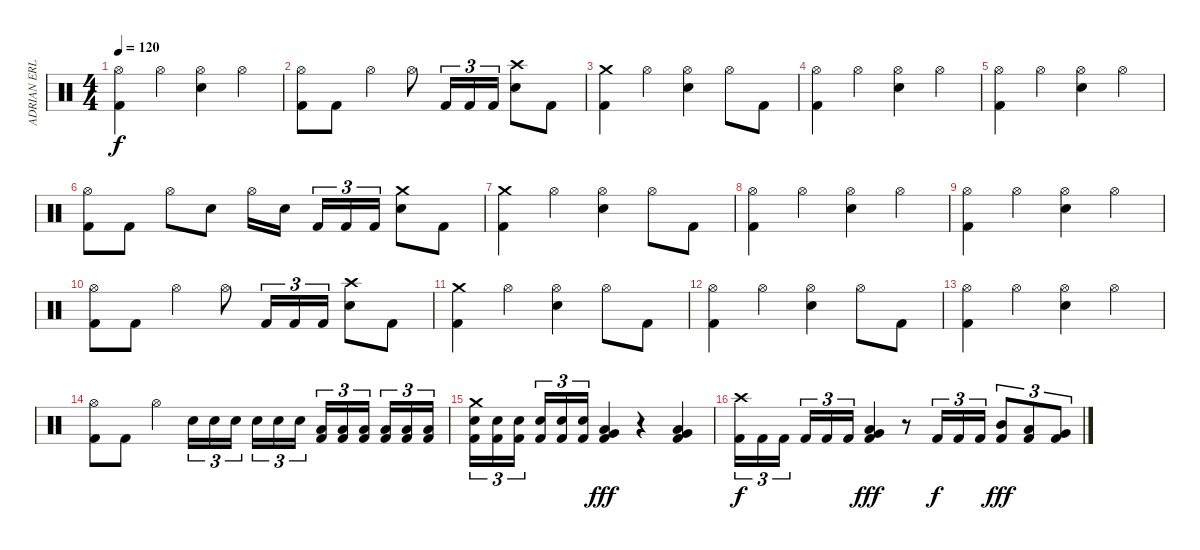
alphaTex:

\track ("ADRIAN ERLANDSSON" "ADRIAN ERL") {instrument percussion}
\staff {score}
\articulation defaults
\ts (4 4)
\tempo 120
\clef neutral
\ks c
("Kick (hit) 2" "Hi-Hat (open)").4{dy f} "Hi-Hat (open)".4 ("Snare (hit) 2" "Hi-Hat (open)").4 "Hi-Hat (open)".4 |
("Kick (hit) 2" "Hi-Hat (open)").8 "Kick (hit) 2".8 "Hi-Hat (open)".4 "Hi-Hat (open)".8 "Kick (hit) 2".16{tu (3 2)} "Kick (hit) 2".16{tu (3 2)} "Kick (hit) 2".16{tu (3 2)} ("Snare (hit) 2" "Crash high (hit)").8 "Kick (hit) 2".8 |
("Kick (hit) 2" "Crash medium (hit)").4 "Hi-Hat (open)".4 ("Snare (hit) 2" "Hi-Hat (open)").4 "Hi-Hat (open)".8 "Kick (hit) 2".8 |
("Kick (hit) 2" "Hi-Hat (open)").4 "Hi-Hat (open)".4 ("Snare (hit) 2" "Hi-Hat (open)").4 "Hi-Hat (open)".4 |
("Kick (hit) 2" "Hi-Hat (open)").4 "Hi-Hat (open)".4 ("Snare (hit) 2" "Hi-Hat (open)").4 "Hi-Hat (open)".4 |
("Kick (hit) 2" "Hi-Hat (open)").8 "Kick (hit) 2".8 "Hi-Hat (open)".8 "Snare (hit) 2".8 "Hi-Hat (open)".16 "Snare (hit) 2".16{beam splitsecondary} "Kick (hit) 2".16{tu (3 2)} "Kick (hit) 2".16{tu (3 2)} "Kick (hit) 2".16{tu (3 2)} ("Snare (hit) 2" "Crash medium (hit)").8 "Kick (hit) 2".8 |
("Kick (hit) 2" "Crash medium (hit)").4 "Hi-Hat (open)".4 ("Snare (hit) 2" "Hi-Hat (open)").4 "Hi-Hat (open)".8 "Kick (hit) 2".8 |
("Kick (hit) 2" "Hi-Hat (open)").4 "Hi-Hat (open)".4 ("Snare (hit) 2" "Hi-Hat (open)").4 "Hi-Hat (open)".4 |
("Kick (hit) 2" "Hi-Hat (open)").4 "Hi-Hat (open)".4 ("Snare (hit) 2" "Hi-Hat (open)").4 "Hi-Hat (open)".4 |
("Kick (hit) 2" "Hi-Hat (open)").8 "Kick (hit) 2".8 "Hi-Hat (open)".4 "Hi-Hat (open)".8 "Kick (hit) 2".16{tu (3 2)} "Kick (hit) 2".16{tu (3 2)} "Kick (hit) 2".16{tu (3 2)} ("Snare (hit) 2" "Crash high (hit)").8 "Kick (hit) 2".8 |
("Kick (hit) 2" "Crash medium (hit)").4 "Hi-Hat (open)".4 ("Snare (hit) 2" "Hi-Hat (open)").4 "Hi-Hat (open)".8 "Kick (hit) 2".8 |
("Kick (hit) 2" "Hi-Hat (open)").4 "Hi-Hat (open)".4 ("Snare (hit) 2" "Hi-Hat (open)").4 "Hi-Hat (open)".8 "Kick (hit) 2".8 |
("Kick (hit) 2" "Hi-Hat (open)").4 "Hi-Hat (open)".4 ("Snare (hit) 2" "Hi-Hat (open)").4 "Hi-Hat (open)".4 |
("Kick (hit) 2" "Hi-Hat (open)").8 "Kick (hit) 2".8 "Hi-Hat (open)".4 "Snare (hit) 2".16{tu (3 2)} "Snare (hit) 2".16{tu (3 2)} "Snare (hit) 2".16{tu (3 2) beam splitsecondary} "Snare (hit) 2".16{tu (3 2)} "Snare (hit) 2".16{tu (3 2)} "Snare (hit) 2".16{tu (3 2)} ("Kick (hit) 2" "Low Tom (hit)").16{tu (3 2)} ("Kick (hit) 2" "Low Tom (hit)").16{tu (3 2)} ("Kick (hit) 2" "Low Tom (hit)").16{tu (3 2) beam splitsecondary} ("Kick (hit) 2" "Low Tom (hit)").16{tu (3 2)} ("Kick (hit) 2" "Low Tom (hit)").16{tu (3 2)} ("Kick (hit) 2" "Low Tom (hit)").16{tu (3 2)} |
("Kick (hit) 2" "Snare (hit) 2" "Crash medium (hit)").16{tu (3 2)} ("Kick (hit) 2" "Snare (hit) 2").16{tu (3 2)} ("Kick (hit) 2" "Snare (hit) 2").16{tu (3 2) beam splitsecondary} ("Kick (hit) 2" "Snare (hit) 2").16{tu (3 2)} ("Kick (hit) 2" "Snare (hit) 2").16{tu (3 2)} ("Kick (hit) 2" "Snare (hit) 2").16{tu (3 2)} ("Kick (hit) 2" "Low Tom (hit)" "Very Low Tom (hit)").4{dy fff} r.4 ("Kick (hit) 2" "Low Tom (hit)" "Very Low Tom (hit)").4 |
("Kick (hit) 2" "Crash high (hit)").16{tu (3 2) dy f} "Kick (hit) 2".16{tu (3 2)} "Kick (hit) 2".16{tu (3 2) beam splitsecondary} "Kick (hit) 2".16{tu (3 2)} "Kick (hit) 2".16{tu (3 2)} "Kick (hit) 2".16{tu (3 2)} ("Kick (hit) 2" "Low Tom (hit)" "Very Low Tom (hit)").4{dy fff} r.8 "Kick (hit) 2".16{tu (3 2) dy f} "Kick (hit) 2".16{tu (3 2)} "Kick (hit) 2".16{tu (3 2)} ("Kick (hit) 2" "Mid Tom (hit)").8{tu (3 2) dy fff} ("Kick (hit) 2" "Low Tom (hit)").8{tu (3 2)} ("Kick (hit) 2" "Very Low Tom (hit)").8{tu (3 2)}
